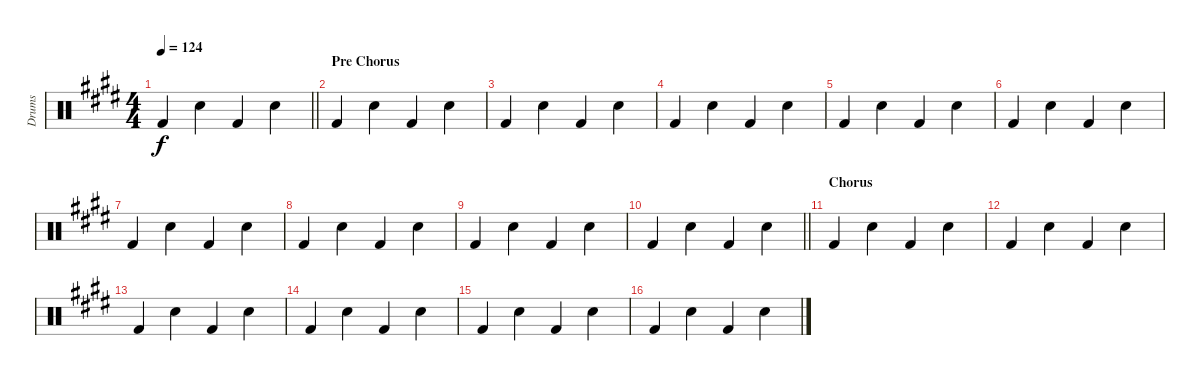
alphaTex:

\track ("Drums" "Drums") {instrument percussion}
\staff {score}
\articulation defaults
\ts (4 4)
\tempo 124
\clef neutral
\barLineRight lightlight
\ks e "Kick (hit) 2".4{dy f} "Snare (hit) 2".4 "Kick (hit) 2".4 "Snare (hit) 2".4
|
\section ("" "Pre Chorus")
"Kick (hit) 2".4 "Snare (hit) 2".4 "Kick (hit) 2".4 "Snare (hit) 2".4 |
"Kick (hit) 2".4 "Snare (hit) 2".4 "Kick (hit) 2".4 "Snare (hit) 2".4 |
"Kick (hit) 2".4 "Snare (hit) 2".4 "Kick (hit) 2".4 "Snare (hit) 2".4 |
"Kick (hit) 2".4 "Snare (hit) 2".4 "Kick (hit) 2".4 "Snare (hit) 2".4 |
"Kick (hit) 2".4 "Snare (hit) 2".4 "Kick (hit) 2".4 "Snare (hit) 2".4 |
"Kick (hit) 2".4 "Snare (hit) 2".4 "Kick (hit) 2".4 "Snare (hit) 2".4 |
"Kick (hit) 2".4 "Snare (hit) 2".4 "Kick (hit) 2".4 "Snare (hit) 2".4 |
"Kick (hit) 2".4 "Snare (hit) 2".4 "Kick (hit) 2".4 "Snare (hit) 2".4 |
\barLineRight lightlight "Kick (hit) 2".4 "Snare (hit) 2".4 "Kick (hit) 2".4 "Snare (hit) 2".4
|
\section ("" "Chorus")
"Kick (hit) 2".4 "Snare (hit) 2".4 "Kick (hit) 2".4 "Snare (hit) 2".4 |
"Kick (hit) 2".4 "Snare (hit) 2".4 "Kick (hit) 2".4 "Snare (hit) 2".4 |
"Kick (hit) 2".4 "Snare (hit) 2".4 "Kick (hit) 2".4 "Snare (hit) 2".4 |
"Kick (hit) 2".4 "Snare (hit) 2".4 "Kick (hit) 2".4 "Snare (hit) 2".4 |
"Kick (hit) 2".4 "Snare (hit) 2".4 "Kick (hit) 2".4 "Snare (hit) 2".4 |
"Kick (hit) 2".4 "Snare (hit) 2".4 "Kick (hit) 2".4 "Snare (hit) 2".4
